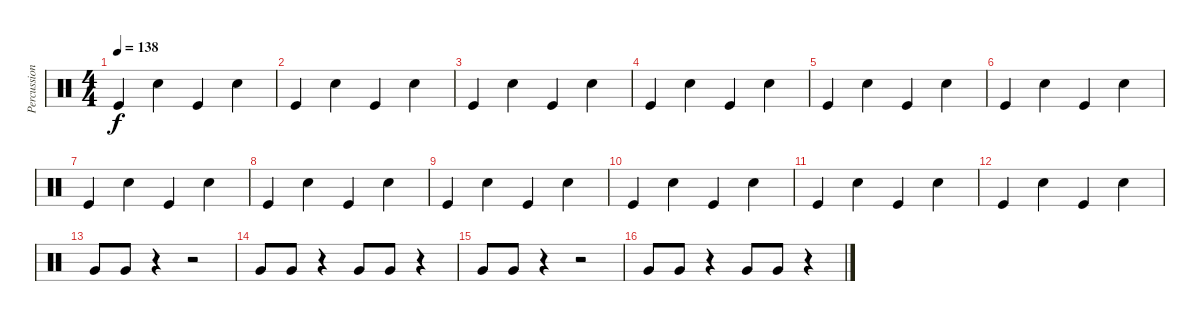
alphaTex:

\track ("Percussion" "Percussion") {instrument percussion}
\staff {score}
\articulation defaults
\ts (4 4)
\tempo 138
\clef neutral
\ks c "Kick (hit)".4{dy f} "Snare (hit) 2".4 "Kick (hit)".4 "Snare (hit) 2".4
|
"Kick (hit)".4 "Snare (hit) 2".4 "Kick (hit)".4 "Snare (hit) 2".4 |
"Kick (hit)".4 "Snare (hit) 2".4 "Kick (hit)".4 "Snare (hit) 2".4 |
"Kick (hit)".4 "Snare (hit) 2".4 "Kick (hit)".4 "Snare (hit) 2".4 |
"Kick (hit)".4 "Snare (hit) 2".4 "Kick (hit)".4 "Snare (hit) 2".4 |
"Kick (hit)".4 "Snare (hit) 2".4 "Kick (hit)".4 "Snare (hit) 2".4 |
"Kick (hit)".4 "Snare (hit) 2".4 "Kick (hit)".4 "Snare (hit) 2".4 |
"Kick (hit)".4 "Snare (hit) 2".4 "Kick (hit)".4 "Snare (hit) 2".4 |
"Kick (hit)".4 "Snare (hit) 2".4 "Kick (hit)".4 "Snare (hit) 2".4 |
"Kick (hit)".4 "Snare (hit) 2".4 "Kick (hit)".4 "Snare (hit) 2".4 |
"Kick (hit)".4 "Snare (hit) 2".4 "Kick (hit)".4 "Snare (hit) 2".4 |
"Kick (hit)".4 "Snare (hit) 2".4 "Kick (hit)".4 "Snare (hit) 2".4 |
"Very Low Tom (hit)".8 "Very Low Tom (hit)".8 r.4 r.2 |
"Very Low Tom (hit)".8 "Very Low Tom (hit)".8 r.4 "Very Low Tom (hit)".8 "Very Low Tom (hit)".8 r.4 |
"Very Low Tom (hit)".8 "Very Low Tom (hit)".8 r.4 r.2 |
"Very Low Tom (hit)".8 "Very Low Tom (hit)".8 r.4 "Very Low Tom (hit)".8 "Very Low Tom (hit)".8 r.4
